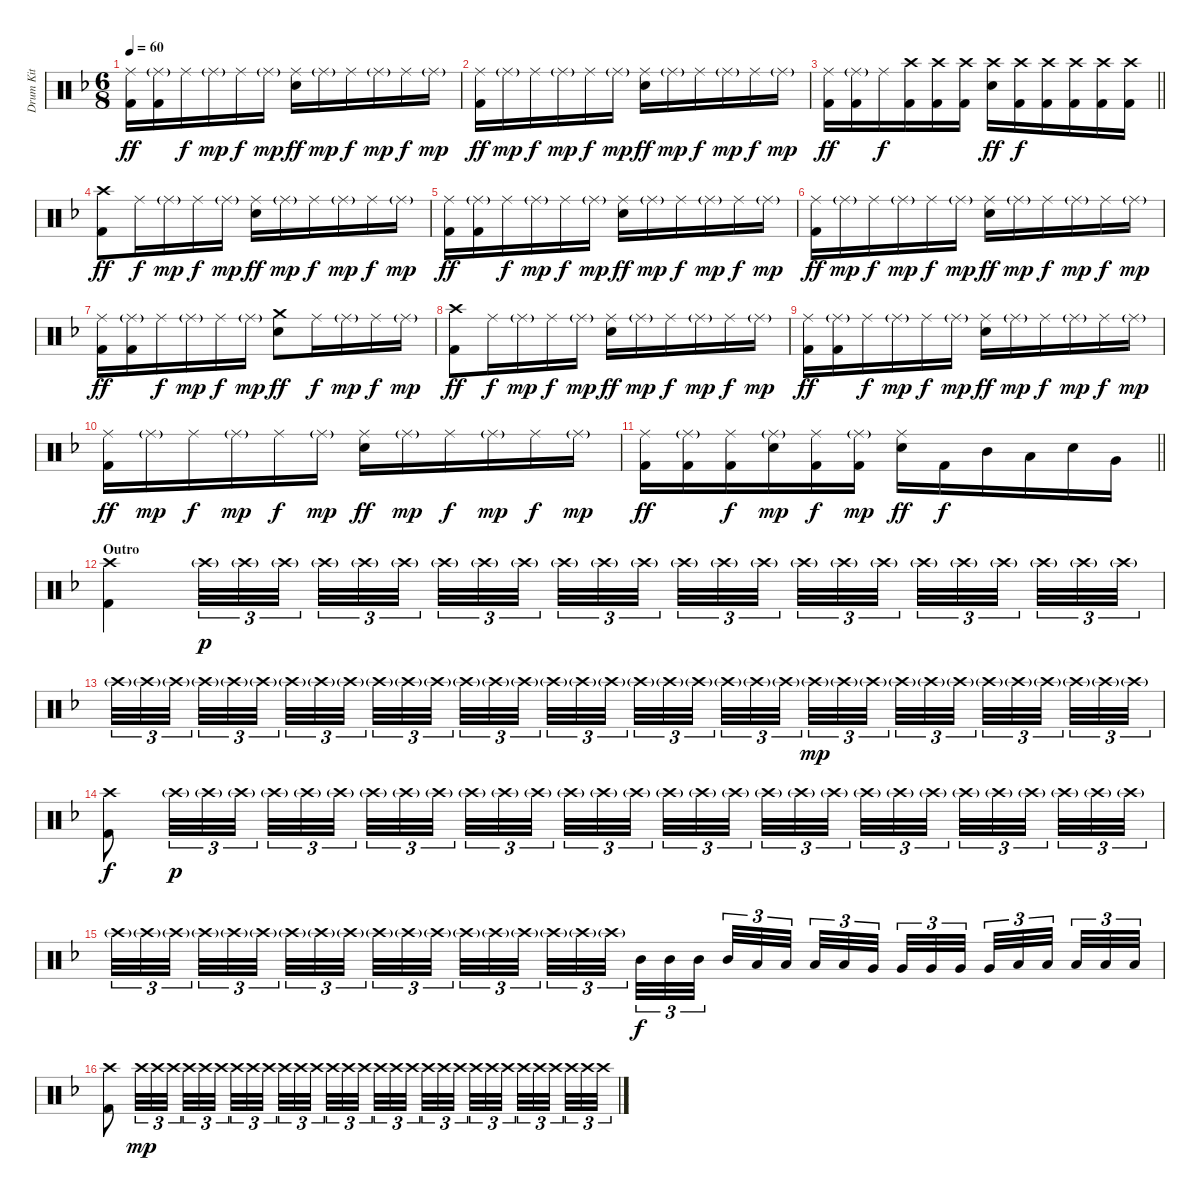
\track ("Drum Kit  (acous.)" "Drum Kit  ") {instrument percussion}
\staff {score}
\articulation defaults
\ts (6 8)
\tempo 60
\clef neutral
\ks dminor
("Ride (middle)" "Kick (hit) 2").16{dy ff} ("Ride (middle)"{g} "Kick (hit) 2").16 "Ride (middle)".16{dy f} "Ride (middle)"{g}.16{dy mp} "Ride (middle)".16{dy f} "Ride (middle)"{g}.16{dy mp} ("Ride (middle)" "Electric Snare (hit)").16{dy ff} "Ride (middle)"{g}.16{dy mp} "Ride (middle)".16{dy f} "Ride (middle)"{g}.16{dy mp} "Ride (middle)".16{dy f} "Ride (middle)"{g}.16{dy mp} |
("Ride (middle)" "Kick (hit) 2").16{dy ff} "Ride (middle)"{g}.16{dy mp} "Ride (middle)".16{dy f} "Ride (middle)"{g}.16{dy mp} "Ride (middle)".16{dy f} "Ride (middle)"{g}.16{dy mp} ("Ride (middle)" "Electric Snare (hit)").16{dy ff} "Ride (middle)"{g}.16{dy mp} "Ride (middle)".16{dy f} "Ride (middle)"{g}.16{dy mp} "Ride (middle)".16{dy f} "Ride (middle)"{g}.16{dy mp} |
\barLineRight lightlight
("Ride (middle)" "Kick (hit) 2").16{dy ff} ("Ride (middle)"{g} "Kick (hit) 2").16 "Ride (middle)".16{dy f} ("Crash high (hit)" "Kick (hit) 2").16 ("Crash high (hit)" "Kick (hit) 2").16 ("Crash high (hit)" "Kick (hit) 2").16 ("Crash high (hit)" "Electric Snare (hit)").16{dy ff} ("Crash high (hit)" "Kick (hit) 2").16{dy f} ("Crash high (hit)" "Kick (hit) 2").16 ("Crash high (hit)" "Kick (hit) 2").16 ("Crash high (hit)" "Kick (hit) 2").16 ("Crash high (hit)" "Kick (hit) 2").16 |
\section ("" "")
("Crash high (hit)" "Kick (hit) 2").8{dy ff} "Ride (middle)".16{dy f} "Ride (middle)"{g}.16{dy mp} "Ride (middle)".16{dy f} "Ride (middle)"{g}.16{dy mp} ("Ride (middle)" "Electric Snare (hit)").16{dy ff} "Ride (middle)"{g}.16{dy mp} "Ride (middle)".16{dy f} "Ride (middle)"{g}.16{dy mp} "Ride (middle)".16{dy f} "Ride (middle)"{g}.16{dy mp} |
("Ride (middle)" "Kick (hit) 2").16{dy ff} ("Ride (middle)"{g} "Kick (hit) 2").16 "Ride (middle)".16{dy f} "Ride (middle)"{g}.16{dy mp} "Ride (middle)".16{dy f} "Ride (middle)"{g}.16{dy mp} ("Ride (middle)" "Electric Snare (hit)").16{dy ff} "Ride (middle)"{g}.16{dy mp} "Ride (middle)".16{dy f} "Ride (middle)"{g}.16{dy mp} "Ride (middle)".16{dy f} "Ride (middle)"{g}.16{dy mp} |
("Ride (middle)" "Kick (hit) 2").16{dy ff} "Ride (middle)"{g}.16{dy mp} "Ride (middle)".16{dy f} "Ride (middle)"{g}.16{dy mp} "Ride (middle)".16{dy f} "Ride (middle)"{g}.16{dy mp} ("Ride (middle)" "Electric Snare (hit)").16{dy ff} "Ride (middle)"{g}.16{dy mp} "Ride (middle)".16{dy f} "Ride (middle)"{g}.16{dy mp} "Ride (middle)".16{dy f} "Ride (middle)"{g}.16{dy mp} |
("Ride (middle)" "Kick (hit) 2").16{dy ff} ("Ride (middle)"{g} "Kick (hit) 2").16 "Ride (middle)".16{dy f} "Ride (middle)"{g}.16{dy mp} "Ride (middle)".16{dy f} "Ride (middle)"{g}.16{dy mp} ("Crash medium (hit)" "Electric Snare (hit)").8{dy ff} "Ride (middle)".16{dy f} "Ride (middle)"{g}.16{dy mp} "Ride (middle)".16{dy f} "Ride (middle)"{g}.16{dy mp} |
("Crash high (hit)" "Kick (hit) 2").8{dy ff} "Ride (middle)".16{dy f} "Ride (middle)"{g}.16{dy mp} "Ride (middle)".16{dy f} "Ride (middle)"{g}.16{dy mp} ("Ride (middle)" "Electric Snare (hit)").16{dy ff} "Ride (middle)"{g}.16{dy mp} "Ride (middle)".16{dy f} "Ride (middle)"{g}.16{dy mp} "Ride (middle)".16{dy f} "Ride (middle)"{g}.16{dy mp} |
("Ride (middle)" "Kick (hit) 2").16{dy ff} ("Ride (middle)"{g} "Kick (hit) 2").16 "Ride (middle)".16{dy f} "Ride (middle)"{g}.16{dy mp} "Ride (middle)".16{dy f} "Ride (middle)"{g}.16{dy mp} ("Ride (middle)" "Electric Snare (hit)").16{dy ff} "Ride (middle)"{g}.16{dy mp} "Ride (middle)".16{dy f} "Ride (middle)"{g}.16{dy mp} "Ride (middle)".16{dy f} "Ride (middle)"{g}.16{dy mp} |
("Ride (middle)" "Kick (hit) 2").16{dy ff} "Ride (middle)"{g}.16{dy mp} "Ride (middle)".16{dy f} "Ride (middle)"{g}.16{dy mp} "Ride (middle)".16{dy f} "Ride (middle)"{g}.16{dy mp} ("Ride (middle)" "Electric Snare (hit)").16{dy ff} "Ride (middle)"{g}.16{dy mp} "Ride (middle)".16{dy f} "Ride (middle)"{g}.16{dy mp} "Ride (middle)".16{dy f} "Ride (middle)"{g}.16{dy mp} |
\barLineRight lightlight
("Ride (middle)" "Kick (hit) 2").16{dy ff} ("Ride (middle)"{g} "Kick (hit) 2").16 ("Ride (middle)" "Kick (hit) 2").16{dy f} ("Ride (middle)"{g} "Electric Snare (hit)").16{dy mp} ("Ride (middle)" "Kick (hit) 2").16{dy f} ("Ride (middle)"{g} "Kick (hit) 2").16{dy mp} ("Ride (middle)" "Electric Snare (hit)").16{dy ff} "Kick (hit) 2".16{dy f} "Mid Tom (hit)".16 "Low Tom (hit)".16 "Electric Snare (hit)".16 "Very Low Tom (hit)".16 |
\section ("" "Outro")
("Crash high (hit)" "Kick (hit) 2").4 "Crash high (hit)"{g}.32{tu (3 2) dy p} "Crash high (hit)"{g}.32{tu (3 2)} "Crash high (hit)"{g}.32{tu (3 2) beam splitsecondary} "Crash high (hit)"{g}.32{tu (3 2)} "Crash high (hit)"{g}.32{tu (3 2)} "Crash high (hit)"{g}.32{tu (3 2)} "Crash high (hit)"{g}.32{tu (3 2)} "Crash high (hit)"{g}.32{tu (3 2)} "Crash high (hit)"{g}.32{tu (3 2) beam splitsecondary} "Crash high (hit)"{g}.32{tu (3 2)} "Crash high (hit)"{g}.32{tu (3 2)} "Crash high (hit)"{g}.32{tu (3 2) beam splitsecondary} "Crash high (hit)"{g}.32{tu (3 2)} "Crash high (hit)"{g}.32{tu (3 2)} "Crash high (hit)"{g}.32{tu (3 2) beam splitsecondary} "Crash high (hit)"{g}.32{tu (3 2)} "Crash high (hit)"{g}.32{tu (3 2)} "Crash high (hit)"{g}.32{tu (3 2) beam splitsecondary} "Crash high (hit)"{g}.32{tu (3 2)} "Crash high (hit)"{g}.32{tu (3 2)} "Crash high (hit)"{g}.32{tu (3 2) beam splitsecondary} "Crash high (hit)"{g}.32{tu (3 2)} "Crash high (hit)"{g}.32{tu (3 2)} "Crash high (hit)"{g}.32{tu (3 2)} |
"Crash high (hit)"{g}.32{tu (3 2)} "Crash high (hit)"{g}.32{tu (3 2)} "Crash high (hit)"{g}.32{tu (3 2) beam splitsecondary} "Crash high (hit)"{g}.32{tu (3 2)} "Crash high (hit)"{g}.32{tu (3 2)} "Crash high (hit)"{g}.32{tu (3 2) beam splitsecondary} "Crash high (hit)"{g}.32{tu (3 2)} "Crash high (hit)"{g}.32{tu (3 2)} "Crash high (hit)"{g}.32{tu (3 2) beam splitsecondary} "Crash high (hit)"{g}.32{tu (3 2)} "Crash high (hit)"{g}.32{tu (3 2)} "Crash high (hit)"{g}.32{tu (3 2) beam splitsecondary} "Crash high (hit)"{g}.32{tu (3 2)} "Crash high (hit)"{g}.32{tu (3 2)} "Crash high (hit)"{g}.32{tu (3 2) beam splitsecondary} "Crash high (hit)"{g}.32{tu (3 2)} "Crash high (hit)"{g}.32{tu (3 2)} "Crash high (hit)"{g}.32{tu (3 2)} "Crash high (hit)"{g}.32{tu (3 2)} "Crash high (hit)"{g}.32{tu (3 2)} "Crash high (hit)"{g}.32{tu (3 2) beam splitsecondary} "Crash high (hit)"{g}.32{tu (3 2)} "Crash high (hit)"{g}.32{tu (3 2)} "Crash high (hit)"{g}.32{tu (3 2) beam splitsecondary} "Crash high (hit)"{g}.32{tu (3 2) dy mp} "Crash high (hit)"{g}.32{tu (3 2)} "Crash high (hit)"{g}.32{tu (3 2) beam splitsecondary} "Crash high (hit)"{g}.32{tu (3 2)} "Crash high (hit)"{g}.32{tu (3 2)} "Crash high (hit)"{g}.32{tu (3 2) beam splitsecondary} "Crash high (hit)"{g}.32{tu (3 2)} "Crash high (hit)"{g}.32{tu (3 2)} "Crash high (hit)"{g}.32{tu (3 2) beam splitsecondary} "Crash high (hit)"{g}.32{tu (3 2)} "Crash high (hit)"{g}.32{tu (3 2)} "Crash high (hit)"{g}.32{tu (3 2)} |
("Crash high (hit)" "Kick (hit) 2").8{dy f} "Crash high (hit)"{g}.32{tu (3 2) dy p} "Crash high (hit)"{g}.32{tu (3 2)} "Crash high (hit)"{g}.32{tu (3 2) beam splitsecondary} "Crash high (hit)"{g}.32{tu (3 2)} "Crash high (hit)"{g}.32{tu (3 2)} "Crash high (hit)"{g}.32{tu (3 2) beam splitsecondary} "Crash high (hit)"{g}.32{tu (3 2)} "Crash high (hit)"{g}.32{tu (3 2)} "Crash high (hit)"{g}.32{tu (3 2) beam splitsecondary} "Crash high (hit)"{g}.32{tu (3 2)} "Crash high (hit)"{g}.32{tu (3 2)} "Crash high (hit)"{g}.32{tu (3 2)} "Crash high (hit)"{g}.32{tu (3 2)} "Crash high (hit)"{g}.32{tu (3 2)} "Crash high (hit)"{g}.32{tu (3 2) beam splitsecondary} "Crash high (hit)"{g}.32{tu (3 2)} "Crash high (hit)"{g}.32{tu (3 2)} "Crash high (hit)"{g}.32{tu (3 2) beam splitsecondary} "Crash high (hit)"{g}.32{tu (3 2)} "Crash high (hit)"{g}.32{tu (3 2)} "Crash high (hit)"{g}.32{tu (3 2) beam splitsecondary} "Crash high (hit)"{g}.32{tu (3 2)} "Crash high (hit)"{g}.32{tu (3 2)} "Crash high (hit)"{g}.32{tu (3 2) beam splitsecondary} "Crash high (hit)"{g}.32{tu (3 2)} "Crash high (hit)"{g}.32{tu (3 2)} "Crash high (hit)"{g}.32{tu (3 2) beam splitsecondary} "Crash high (hit)"{g}.32{tu (3 2)} "Crash high (hit)"{g}.32{tu (3 2)} "Crash high (hit)"{g}.32{tu (3 2)} |
"Crash high (hit)"{g}.32{tu (3 2)} "Crash high (hit)"{g}.32{tu (3 2)} "Crash high (hit)"{g}.32{tu (3 2) beam splitsecondary} "Crash high (hit)"{g}.32{tu (3 2)} "Crash high (hit)"{g}.32{tu (3 2)} "Crash high (hit)"{g}.32{tu (3 2) beam splitsecondary} "Crash high (hit)"{g}.32{tu (3 2)} "Crash high (hit)"{g}.32{tu (3 2)} "Crash high (hit)"{g}.32{tu (3 2) beam splitsecondary} "Crash high (hit)"{g}.32{tu (3 2)} "Crash high (hit)"{g}.32{tu (3 2)} "Crash high (hit)"{g}.32{tu (3 2) beam splitsecondary} "Crash high (hit)"{g}.32{tu (3 2)} "Crash high (hit)"{g}.32{tu (3 2)} "Crash high (hit)"{g}.32{tu (3 2) beam splitsecondary} "Crash high (hit)"{g}.32{tu (3 2)} "Crash high (hit)"{g}.32{tu (3 2)} "Crash high (hit)"{g}.32{tu (3 2)} "Mid Tom (hit)".32{tu (3 2) dy f} "Mid Tom (hit)".32{tu (3 2)} "Mid Tom (hit)".32{tu (3 2) beam splitsecondary} "Mid Tom (hit)".32{tu (3 2)} "Low Tom (hit)".32{tu (3 2)} "Low Tom (hit)".32{tu (3 2) beam splitsecondary} "Low Tom (hit)".32{tu (3 2)} "Low Tom (hit)".32{tu (3 2)} "Very Low Tom (hit)".32{tu (3 2) beam splitsecondary} "Very Low Tom (hit)".32{tu (3 2)} "Very Low Tom (hit)".32{tu (3 2)} "Very Low Tom (hit)".32{tu (3 2) beam splitsecondary} "Very Low Tom (hit)".32{tu (3 2)} "Low Floor Tom (hit)".32{tu (3 2)} "Low Floor Tom (hit)".32{tu (3 2) beam splitsecondary} "Low Floor Tom (hit)".32{tu (3 2)} "Low Floor Tom (hit)".32{tu (3 2)} "Low Floor Tom (hit)".32{tu (3 2)} |
("Crash high (hit)" "Kick (hit) 2").8 "Crash high (hit)".32{tu (3 2) dy mp} "Crash high (hit)".32{tu (3 2)} "Crash high (hit)".32{tu (3 2) beam splitsecondary} "Crash high (hit)".32{tu (3 2)} "Crash high (hit)".32{tu (3 2)} "Crash high (hit)".32{tu (3 2) beam splitsecondary} "Crash high (hit)".32{tu (3 2)} "Crash high (hit)".32{tu (3 2)} "Crash high (hit)".32{tu (3 2) beam splitsecondary} "Crash high (hit)".32{tu (3 2)} "Crash high (hit)".32{tu (3 2)} "Crash high (hit)".32{tu (3 2)} "Crash high (hit)".32{tu (3 2)} "Crash high (hit)".32{tu (3 2)} "Crash high (hit)".32{tu (3 2) beam splitsecondary} "Crash high (hit)".32{tu (3 2)} "Crash high (hit)".32{tu (3 2)} "Crash high (hit)".32{tu (3 2) beam splitsecondary} "Crash high (hit)".32{tu (3 2)} "Crash high (hit)".32{tu (3 2)} "Crash high (hit)".32{tu (3 2) beam splitsecondary} "Crash high (hit)".32{tu (3 2)} "Crash high (hit)".32{tu (3 2)} "Crash high (hit)".32{tu (3 2) beam splitsecondary} "Crash high (hit)".32{tu (3 2)} "Crash high (hit)".32{tu (3 2)} "Crash high (hit)".32{tu (3 2) beam splitsecondary} "Crash high (hit)".32{tu (3 2)} "Crash high (hit)".32{tu (3 2)} "Crash high (hit)".32{tu (3 2)}
